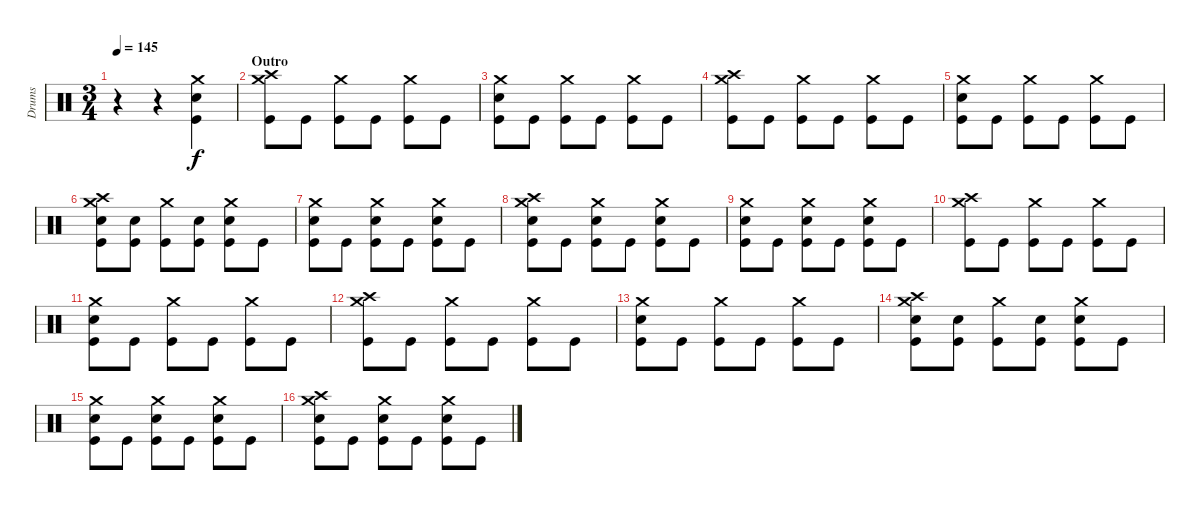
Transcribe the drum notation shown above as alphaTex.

\track ("Drums" "Drums") {instrument percussion}
\staff {score}
\articulation defaults
\ts (3 4)
\tempo 145
\clef neutral
\ks c
r.4{dy f} r.4 ("Crash medium (hit)" "Electric Snare (hit)" "Kick (hit)").4 |
\section ("" "Outro")
("Crash high (hit)" "Crash medium (hit)" "Kick (hit)").8 "Kick (hit)".8 ("Crash medium (hit)" "Kick (hit)").8 "Kick (hit)".8 ("Crash medium (hit)" "Kick (hit)").8 "Kick (hit)".8 |
("Crash medium (hit)" "Electric Snare (hit)" "Kick (hit)").8 "Kick (hit)".8 ("Crash medium (hit)" "Kick (hit)").8 "Kick (hit)".8 ("Crash medium (hit)" "Kick (hit)").8 "Kick (hit)".8 |
("Crash high (hit)" "Crash medium (hit)" "Kick (hit)").8 "Kick (hit)".8 ("Crash medium (hit)" "Kick (hit)").8 "Kick (hit)".8 ("Crash medium (hit)" "Kick (hit)").8 "Kick (hit)".8 |
("Crash medium (hit)" "Electric Snare (hit)" "Kick (hit)").8 "Kick (hit)".8 ("Crash medium (hit)" "Kick (hit)").8 "Kick (hit)".8 ("Crash medium (hit)" "Kick (hit)").8 "Kick (hit)".8 |
("Crash high (hit)" "Crash medium (hit)" "Electric Snare (hit)" "Kick (hit)").8 ("Electric Snare (hit)" "Kick (hit)").8 ("Crash medium (hit)" "Kick (hit)").8 ("Electric Snare (hit)" "Kick (hit)").8 ("Crash medium (hit)" "Electric Snare (hit)" "Kick (hit)").8 "Kick (hit)".8 |
("Crash medium (hit)" "Electric Snare (hit)" "Kick (hit)").8 "Kick (hit)".8 ("Crash medium (hit)" "Electric Snare (hit)" "Kick (hit)").8 "Kick (hit)".8 ("Crash medium (hit)" "Electric Snare (hit)" "Kick (hit)").8 "Kick (hit)".8 |
("Crash high (hit)" "Crash medium (hit)" "Electric Snare (hit)" "Kick (hit)").8 "Kick (hit)".8 ("Crash medium (hit)" "Electric Snare (hit)" "Kick (hit)").8 "Kick (hit)".8 ("Crash medium (hit)" "Electric Snare (hit)" "Kick (hit)").8 "Kick (hit)".8 |
("Crash medium (hit)" "Electric Snare (hit)" "Kick (hit)").8 "Kick (hit)".8 ("Crash medium (hit)" "Electric Snare (hit)" "Kick (hit)").8 "Kick (hit)".8 ("Crash medium (hit)" "Electric Snare (hit)" "Kick (hit)").8 "Kick (hit)".8 |
("Crash high (hit)" "Crash medium (hit)" "Kick (hit)").8 "Kick (hit)".8 ("Crash medium (hit)" "Kick (hit)").8 "Kick (hit)".8 ("Crash medium (hit)" "Kick (hit)").8 "Kick (hit)".8 |
("Crash medium (hit)" "Electric Snare (hit)" "Kick (hit)").8 "Kick (hit)".8 ("Crash medium (hit)" "Kick (hit)").8 "Kick (hit)".8 ("Crash medium (hit)" "Kick (hit)").8 "Kick (hit)".8 |
("Crash high (hit)" "Crash medium (hit)" "Kick (hit)").8 "Kick (hit)".8 ("Crash medium (hit)" "Kick (hit)").8 "Kick (hit)".8 ("Crash medium (hit)" "Kick (hit)").8 "Kick (hit)".8 |
("Crash medium (hit)" "Electric Snare (hit)" "Kick (hit)").8 "Kick (hit)".8 ("Crash medium (hit)" "Kick (hit)").8 "Kick (hit)".8 ("Crash medium (hit)" "Kick (hit)").8 "Kick (hit)".8 |
("Crash high (hit)" "Crash medium (hit)" "Electric Snare (hit)" "Kick (hit)").8 ("Electric Snare (hit)" "Kick (hit)").8 ("Crash medium (hit)" "Kick (hit)").8 ("Electric Snare (hit)" "Kick (hit)").8 ("Crash medium (hit)" "Electric Snare (hit)" "Kick (hit)").8 "Kick (hit)".8 |
("Crash medium (hit)" "Electric Snare (hit)" "Kick (hit)").8 "Kick (hit)".8 ("Crash medium (hit)" "Electric Snare (hit)" "Kick (hit)").8 "Kick (hit)".8 ("Crash medium (hit)" "Electric Snare (hit)" "Kick (hit)").8 "Kick (hit)".8 |
("Crash high (hit)" "Crash medium (hit)" "Electric Snare (hit)" "Kick (hit)").8 "Kick (hit)".8 ("Crash medium (hit)" "Electric Snare (hit)" "Kick (hit)").8 "Kick (hit)".8 ("Crash medium (hit)" "Electric Snare (hit)" "Kick (hit)").8 "Kick (hit)".8
